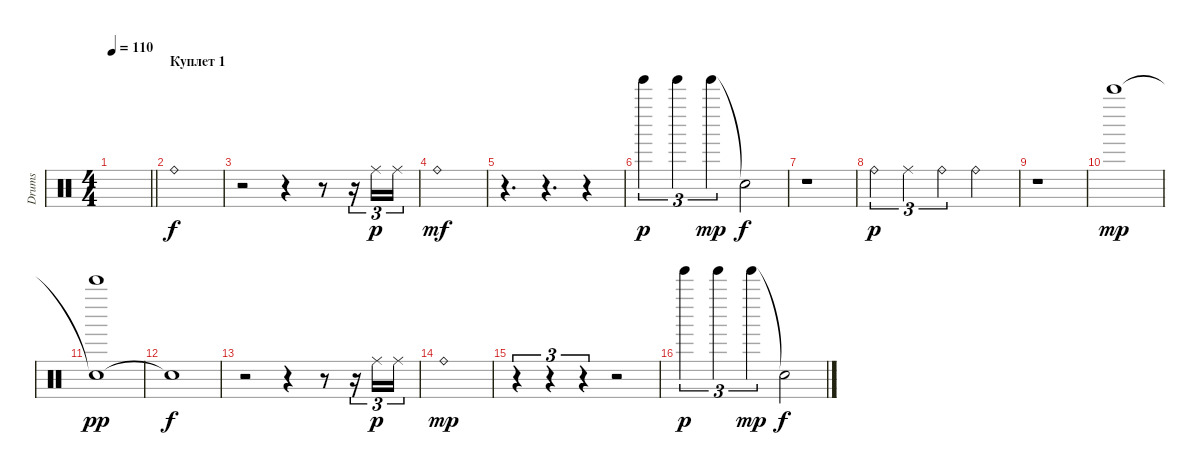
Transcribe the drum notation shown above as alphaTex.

\track ("Drums" "Drums") {instrument percussion}
\staff {score}
\articulation defaults
\ts (4 4)
\tempo 110
\clef neutral
\barLineRight lightlight
\ks c
|
\section ("" "Куплет 1")
"Ride (bell)".1 |
r.2 r.4 r.8 r.16{tu (3 2)} "Ride (middle)".16{tu (3 2) dy p} "Ride (middle)".16{tu (3 2)} |
"Ride (bell)".1{dy mf} |
r.4{d} r.4{d} r.4 |
"Tinkle Bell (hit)".4{tu (3 2) dy p} "Tinkle Bell (hit)".4{tu (3 2)} "Tinkle Bell (hit)".4{tu (3 2) dy mp} "Snare (hit)"{t}.2{dy f} |
r.1 |
"Ride (bell)".4{tu (3 2) dy p} "Ride (middle)".4{tu (3 2)} "Ride (bell)".4{tu (3 2)} "Ride (bell)".2 |
r.1 |
"Bell Tree (hit)".1{dy mp} |
("Snare (hit)"{t} "Bell Tree (hit)").1{dy pp} |
"Snare (hit)"{t}.1{dy f} |
r.2 r.4 r.8 r.16{tu (3 2)} "Ride (middle)".16{tu (3 2) dy p} "Ride (middle)".16{tu (3 2)} |
"Ride (bell)".1{dy mp} |
r.4{tu (3 2)} r.4{tu (3 2)} r.4{tu (3 2)} r.2 |
"Tinkle Bell (hit)".4{tu (3 2) dy p} "Tinkle Bell (hit)".4{tu (3 2)} "Tinkle Bell (hit)".4{tu (3 2) dy mp} "Snare (hit)"{t}.2{dy f}
